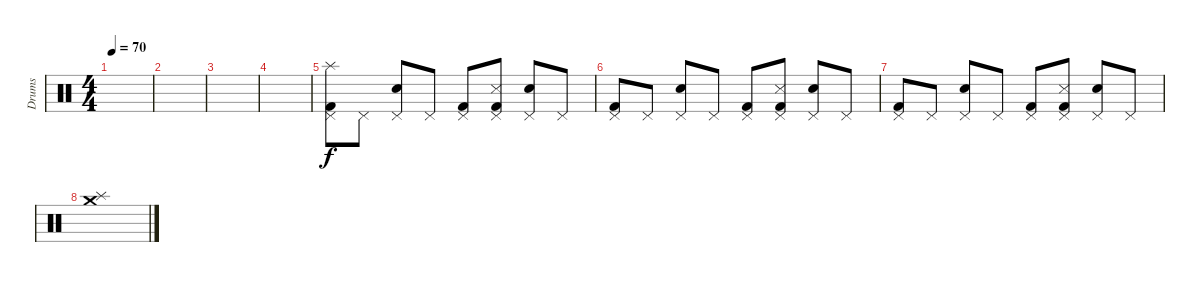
\track ("Drums" "Drums") {instrument percussion}
\staff {score}
\articulation defaults
\ts (4 4)
\tempo 70
\clef neutral
\ks c
|
|
|
|
("Pedal Hi-Hat (hit)" "Kick (hit) 2" "Splash (hit)").8 "Pedal Hi-Hat (hit)".8 ("Pedal Hi-Hat (hit)" "Electric Snare (hit)").8 "Pedal Hi-Hat (hit)".8 ("Pedal Hi-Hat (hit)" "Kick (hit) 2").8 ("Pedal Hi-Hat (hit)" "Kick (hit) 2" "Metronome (hit)").8 ("Pedal Hi-Hat (hit)" "Electric Snare (hit)").8 "Pedal Hi-Hat (hit)".8 |
("Pedal Hi-Hat (hit)" "Kick (hit) 2").8 "Pedal Hi-Hat (hit)".8 ("Pedal Hi-Hat (hit)" "Electric Snare (hit)").8 "Pedal Hi-Hat (hit)".8 ("Pedal Hi-Hat (hit)" "Kick (hit) 2").8 ("Pedal Hi-Hat (hit)" "Kick (hit) 2" "Metronome (hit)").8 ("Pedal Hi-Hat (hit)" "Electric Snare (hit)").8 "Pedal Hi-Hat (hit)".8 |
("Pedal Hi-Hat (hit)" "Kick (hit) 2").8 "Pedal Hi-Hat (hit)".8 ("Pedal Hi-Hat (hit)" "Electric Snare (hit)").8 "Pedal Hi-Hat (hit)".8 ("Pedal Hi-Hat (hit)" "Kick (hit) 2").8 ("Pedal Hi-Hat (hit)" "Kick (hit) 2" "Metronome (hit)").8 ("Pedal Hi-Hat (hit)" "Electric Snare (hit)").8 "Pedal Hi-Hat (hit)".8 |
("Splash (hit)" "Crash medium (hit)").1
